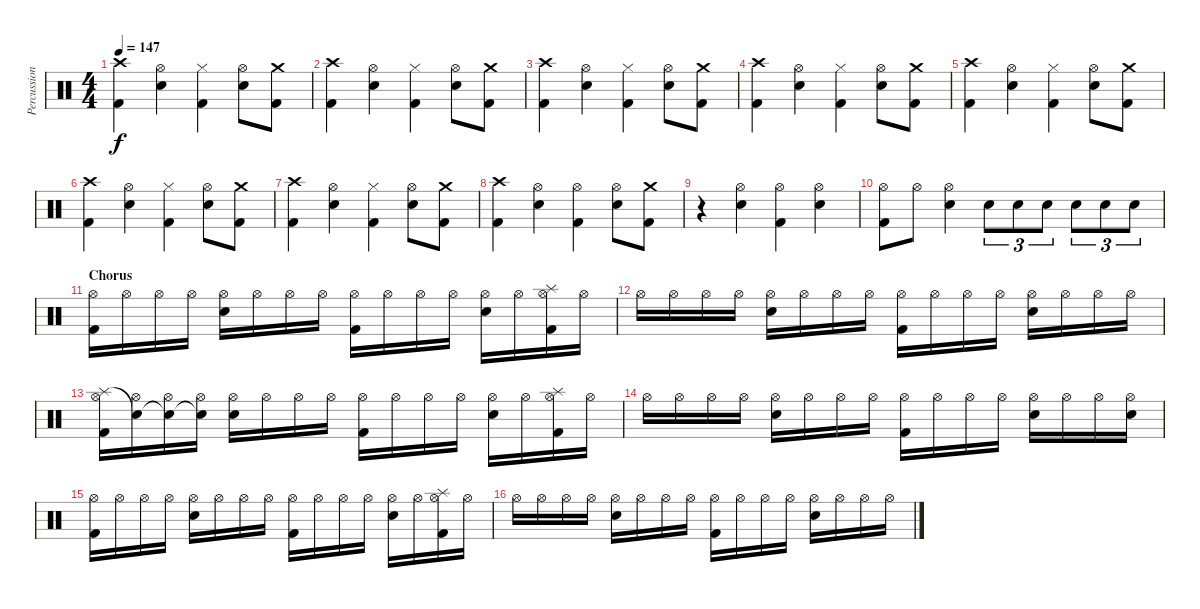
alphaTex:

\track ("Percussion" "Percussion") {instrument percussion}
\staff {score}
\articulation defaults
\ts (4 4)
\tempo 147
\clef neutral
\ks c
("Crash high (hit)" "Kick (hit) 2").4{dy f} ("Hi-Hat (open)" "Snare (hit) 2").4 ("Hi-Hat (closed)" "Kick (hit) 2").4 ("Hi-Hat (open)" "Snare (hit) 2").8 ("Crash medium (hit)" "Kick (hit) 2").8 |
("Crash high (hit)" "Kick (hit) 2").4 ("Hi-Hat (open)" "Snare (hit) 2").4 ("Hi-Hat (closed)" "Kick (hit) 2").4 ("Hi-Hat (open)" "Snare (hit) 2").8 ("Crash medium (hit)" "Kick (hit) 2").8 |
("Crash high (hit)" "Kick (hit) 2").4 ("Hi-Hat (open)" "Snare (hit) 2").4 ("Hi-Hat (closed)" "Kick (hit) 2").4 ("Hi-Hat (open)" "Snare (hit) 2").8 ("Crash medium (hit)" "Kick (hit) 2").8 |
("Crash high (hit)" "Kick (hit) 2").4 ("Hi-Hat (open)" "Snare (hit) 2").4 ("Hi-Hat (closed)" "Kick (hit) 2").4 ("Hi-Hat (open)" "Snare (hit) 2").8 ("Crash medium (hit)" "Kick (hit) 2").8 |
("Crash high (hit)" "Kick (hit) 2").4 ("Hi-Hat (open)" "Snare (hit) 2").4 ("Hi-Hat (closed)" "Kick (hit) 2").4 ("Hi-Hat (open)" "Snare (hit) 2").8 ("Crash medium (hit)" "Kick (hit) 2").8 |
("Crash high (hit)" "Kick (hit) 2").4 ("Hi-Hat (open)" "Snare (hit) 2").4 ("Hi-Hat (closed)" "Kick (hit) 2").4 ("Hi-Hat (open)" "Snare (hit) 2").8 ("Crash medium (hit)" "Kick (hit) 2").8 |
("Crash high (hit)" "Kick (hit) 2").4 ("Hi-Hat (open)" "Snare (hit) 2").4 ("Hi-Hat (closed)" "Kick (hit) 2").4 ("Hi-Hat (open)" "Snare (hit) 2").8 ("Crash medium (hit)" "Kick (hit) 2").8 |
("Crash high (hit)" "Kick (hit) 2").4 ("Hi-Hat (open)" "Snare (hit) 2").4 ("Hi-Hat (open)" "Kick (hit) 2").4 ("Hi-Hat (open)" "Snare (hit) 2").8 ("Crash medium (hit)" "Kick (hit) 2").8 |
r.4 ("Hi-Hat (open)" "Snare (hit) 2").4 ("Hi-Hat (open)" "Kick (hit) 2").4 ("Hi-Hat (open)" "Snare (hit) 2").4 |
("Hi-Hat (open)" "Kick (hit) 2").8 "Hi-Hat (open)".8 ("Hi-Hat (open)" "Snare (hit) 2").4 "Snare (hit) 2".8{tu (3 2)} "Snare (hit) 2".8{tu (3 2)} "Snare (hit) 2".8{tu (3 2)} "Snare (hit) 2".8{tu (3 2)} "Snare (hit) 2".8{tu (3 2)} "Snare (hit) 2".8{tu (3 2)} |
\section ("" "Chorus")
("Hi-Hat (open)" "Kick (hit) 2").16 "Hi-Hat (open)".16 "Hi-Hat (open)".16 "Hi-Hat (open)".16 ("Hi-Hat (open)" "Snare (hit) 2").16 "Hi-Hat (open)".16 "Hi-Hat (open)".16 "Hi-Hat (open)".16 ("Hi-Hat (open)" "Kick (hit) 2").16 "Hi-Hat (open)".16 "Hi-Hat (open)".16 "Hi-Hat (open)".16 ("Hi-Hat (open)" "Snare (hit) 2").16 "Hi-Hat (open)".16 ("Hi-Hat (open)" "Splash (hit)" "Kick (hit) 2").16 "Hi-Hat (open)".16 |
"Hi-Hat (open)".16 "Hi-Hat (open)".16 "Hi-Hat (open)".16 "Hi-Hat (open)".16 ("Hi-Hat (open)" "Snare (hit) 2").16 "Hi-Hat (open)".16 "Hi-Hat (open)".16 "Hi-Hat (open)".16 ("Hi-Hat (open)" "Kick (hit) 2").16 "Hi-Hat (open)".16 "Hi-Hat (open)".16 "Hi-Hat (open)".16 ("Hi-Hat (open)" "Snare (hit) 2").16 "Hi-Hat (open)".16 "Hi-Hat (open)".16 "Hi-Hat (open)".16 |
("Hi-Hat (open)" "Splash (hit)" "Kick (hit) 2").16 ("Hi-Hat (open)" "Snare (hit)"{t}).16 ("Hi-Hat (open)" "Snare (hit)"{t}).16 ("Hi-Hat (open)" "Snare (hit)"{t}).16 ("Hi-Hat (open)" "Snare (hit) 2").16 "Hi-Hat (open)".16 "Hi-Hat (open)".16 "Hi-Hat (open)".16 ("Hi-Hat (open)" "Kick (hit) 2").16 "Hi-Hat (open)".16 "Hi-Hat (open)".16 "Hi-Hat (open)".16 ("Hi-Hat (open)" "Snare (hit) 2").16 "Hi-Hat (open)".16 ("Hi-Hat (open)" "Splash (hit)" "Kick (hit) 2").16 "Hi-Hat (open)".16 |
"Hi-Hat (open)".16 "Hi-Hat (open)".16 "Hi-Hat (open)".16 "Hi-Hat (open)".16 ("Hi-Hat (open)" "Snare (hit) 2").16 "Hi-Hat (open)".16 "Hi-Hat (open)".16 "Hi-Hat (open)".16 ("Hi-Hat (open)" "Kick (hit) 2").16 "Hi-Hat (open)".16 "Hi-Hat (open)".16 "Hi-Hat (open)".16 ("Hi-Hat (open)" "Snare (hit) 2").16 "Hi-Hat (open)".16 "Hi-Hat (open)".16 ("Hi-Hat (open)" "Snare (hit) 2").16 |
("Hi-Hat (open)" "Kick (hit) 2").16 "Hi-Hat (open)".16 "Hi-Hat (open)".16 "Hi-Hat (open)".16 ("Hi-Hat (open)" "Snare (hit) 2").16 "Hi-Hat (open)".16 "Hi-Hat (open)".16 "Hi-Hat (open)".16 ("Hi-Hat (open)" "Kick (hit) 2").16 "Hi-Hat (open)".16 "Hi-Hat (open)".16 "Hi-Hat (open)".16 ("Hi-Hat (open)" "Snare (hit) 2").16 "Hi-Hat (open)".16 ("Hi-Hat (open)" "Splash (hit)" "Kick (hit) 2").16 "Hi-Hat (open)".16 |
"Hi-Hat (open)".16 "Hi-Hat (open)".16 "Hi-Hat (open)".16 "Hi-Hat (open)".16 ("Hi-Hat (open)" "Snare (hit) 2").16 "Hi-Hat (open)".16 "Hi-Hat (open)".16 "Hi-Hat (open)".16 ("Hi-Hat (open)" "Kick (hit) 2").16 "Hi-Hat (open)".16 "Hi-Hat (open)".16 "Hi-Hat (open)".16 ("Hi-Hat (open)" "Snare (hit) 2").16 "Hi-Hat (open)".16 "Hi-Hat (open)".16 "Hi-Hat (open)".16
